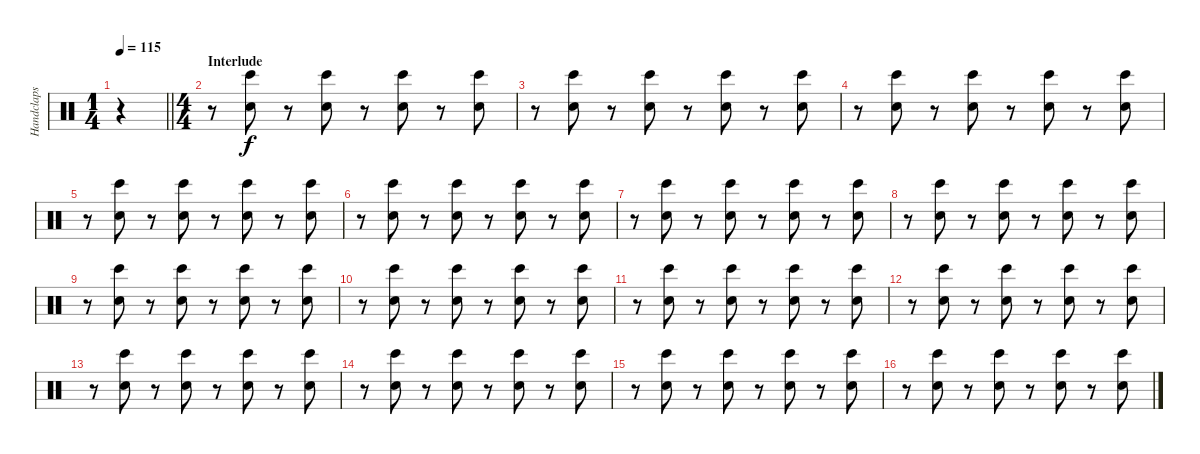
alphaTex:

\track ("Handclaps" "Handclaps") {instrument percussion}
\staff {score}
\articulation defaults
\ts (1 4)
\tempo 115
\clef neutral
\barLineRight lightlight
\ks c
r.4{dy f} |
\ts (4 4)
\section ("" "Interlude")
r.8 ("Bongo High (hit)" "Hand Clap (hit)").8 r.8 ("Bongo High (hit)" "Hand Clap (hit)").8 r.8 ("Bongo High (hit)" "Hand Clap (hit)").8 r.8 ("Bongo High (hit)" "Hand Clap (hit)").8 |
r.8 ("Bongo High (hit)" "Hand Clap (hit)").8 r.8 ("Bongo High (hit)" "Hand Clap (hit)").8 r.8 ("Bongo High (hit)" "Hand Clap (hit)").8 r.8 ("Bongo High (hit)" "Hand Clap (hit)").8 |
r.8 ("Bongo High (hit)" "Hand Clap (hit)").8 r.8 ("Bongo High (hit)" "Hand Clap (hit)").8 r.8 ("Bongo High (hit)" "Hand Clap (hit)").8 r.8 ("Bongo High (hit)" "Hand Clap (hit)").8 |
r.8 ("Bongo High (hit)" "Hand Clap (hit)").8 r.8 ("Bongo High (hit)" "Hand Clap (hit)").8 r.8 ("Bongo High (hit)" "Hand Clap (hit)").8 r.8 ("Bongo High (hit)" "Hand Clap (hit)").8 |
r.8 ("Bongo High (hit)" "Hand Clap (hit)").8 r.8 ("Bongo High (hit)" "Hand Clap (hit)").8 r.8 ("Bongo High (hit)" "Hand Clap (hit)").8 r.8 ("Bongo High (hit)" "Hand Clap (hit)").8 |
r.8 ("Bongo High (hit)" "Hand Clap (hit)").8 r.8 ("Bongo High (hit)" "Hand Clap (hit)").8 r.8 ("Bongo High (hit)" "Hand Clap (hit)").8 r.8 ("Bongo High (hit)" "Hand Clap (hit)").8 |
r.8 ("Bongo High (hit)" "Hand Clap (hit)").8 r.8 ("Bongo High (hit)" "Hand Clap (hit)").8 r.8 ("Bongo High (hit)" "Hand Clap (hit)").8 r.8 ("Bongo High (hit)" "Hand Clap (hit)").8 |
r.8 ("Bongo High (hit)" "Hand Clap (hit)").8 r.8 ("Bongo High (hit)" "Hand Clap (hit)").8 r.8 ("Bongo High (hit)" "Hand Clap (hit)").8 r.8 ("Bongo High (hit)" "Hand Clap (hit)").8 |
r.8 ("Bongo High (hit)" "Hand Clap (hit)").8 r.8 ("Bongo High (hit)" "Hand Clap (hit)").8 r.8 ("Bongo High (hit)" "Hand Clap (hit)").8 r.8 ("Bongo High (hit)" "Hand Clap (hit)").8 |
r.8 ("Bongo High (hit)" "Hand Clap (hit)").8 r.8 ("Bongo High (hit)" "Hand Clap (hit)").8 r.8 ("Bongo High (hit)" "Hand Clap (hit)").8 r.8 ("Bongo High (hit)" "Hand Clap (hit)").8 |
r.8 ("Bongo High (hit)" "Hand Clap (hit)").8 r.8 ("Bongo High (hit)" "Hand Clap (hit)").8 r.8 ("Bongo High (hit)" "Hand Clap (hit)").8 r.8 ("Bongo High (hit)" "Hand Clap (hit)").8 |
r.8 ("Bongo High (hit)" "Hand Clap (hit)").8 r.8 ("Bongo High (hit)" "Hand Clap (hit)").8 r.8 ("Bongo High (hit)" "Hand Clap (hit)").8 r.8 ("Bongo High (hit)" "Hand Clap (hit)").8 |
r.8 ("Bongo High (hit)" "Hand Clap (hit)").8 r.8 ("Bongo High (hit)" "Hand Clap (hit)").8 r.8 ("Bongo High (hit)" "Hand Clap (hit)").8 r.8 ("Bongo High (hit)" "Hand Clap (hit)").8 |
r.8 ("Bongo High (hit)" "Hand Clap (hit)").8 r.8 ("Bongo High (hit)" "Hand Clap (hit)").8 r.8 ("Bongo High (hit)" "Hand Clap (hit)").8 r.8 ("Bongo High (hit)" "Hand Clap (hit)").8 |
r.8 ("Bongo High (hit)" "Hand Clap (hit)").8 r.8 ("Bongo High (hit)" "Hand Clap (hit)").8 r.8 ("Bongo High (hit)" "Hand Clap (hit)").8 r.8 ("Bongo High (hit)" "Hand Clap (hit)").8
